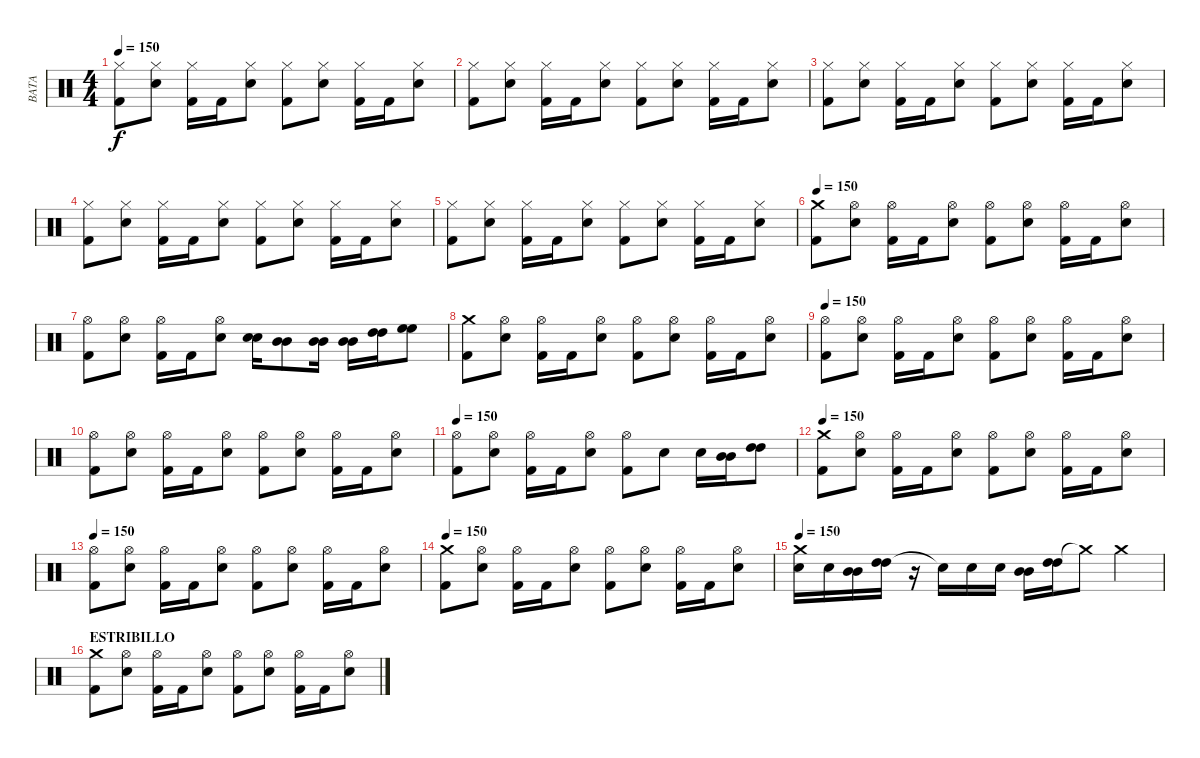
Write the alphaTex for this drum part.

\track ("BATA" "BATA") {instrument percussion}
\staff {score}
\articulation defaults
\ts (4 4)
\tempo 150
\clef neutral
\ks c
("Hi-Hat (closed)" "Kick (hit) 2").8{dy f} ("Hi-Hat (closed)" "Snare (hit) 2").8 ("Hi-Hat (closed)" "Kick (hit) 2").16 "Kick (hit) 2".16 ("Hi-Hat (closed)" "Snare (hit) 2").8 ("Hi-Hat (closed)" "Kick (hit) 2").8 ("Hi-Hat (closed)" "Snare (hit) 2").8 ("Hi-Hat (closed)" "Kick (hit) 2").16 "Kick (hit) 2".16 ("Hi-Hat (closed)" "Snare (hit) 2").8 |
("Hi-Hat (closed)" "Kick (hit) 2").8 ("Hi-Hat (closed)" "Snare (hit) 2").8 ("Hi-Hat (closed)" "Kick (hit) 2").16 "Kick (hit) 2".16 ("Hi-Hat (closed)" "Snare (hit) 2").8 ("Hi-Hat (closed)" "Kick (hit) 2").8 ("Hi-Hat (closed)" "Snare (hit) 2").8 ("Hi-Hat (closed)" "Kick (hit) 2").16 "Kick (hit) 2".16 ("Hi-Hat (closed)" "Snare (hit) 2").8 |
("Hi-Hat (closed)" "Kick (hit) 2").8 ("Hi-Hat (closed)" "Snare (hit) 2").8 ("Hi-Hat (closed)" "Kick (hit) 2").16 "Kick (hit) 2".16 ("Hi-Hat (closed)" "Snare (hit) 2").8 ("Hi-Hat (closed)" "Kick (hit) 2").8 ("Hi-Hat (closed)" "Snare (hit) 2").8 ("Hi-Hat (closed)" "Kick (hit) 2").16 "Kick (hit) 2".16 ("Hi-Hat (closed)" "Snare (hit) 2").8 |
("Hi-Hat (closed)" "Kick (hit) 2").8 ("Hi-Hat (closed)" "Snare (hit) 2").8 ("Hi-Hat (closed)" "Kick (hit) 2").16 "Kick (hit) 2".16 ("Hi-Hat (closed)" "Snare (hit) 2").8 ("Hi-Hat (closed)" "Kick (hit) 2").8 ("Hi-Hat (closed)" "Snare (hit) 2").8 ("Hi-Hat (closed)" "Kick (hit) 2").16 "Kick (hit) 2".16 ("Hi-Hat (closed)" "Snare (hit) 2").8 |
("Hi-Hat (closed)" "Kick (hit) 2").8 ("Hi-Hat (closed)" "Snare (hit) 2").8 ("Hi-Hat (closed)" "Kick (hit) 2").16 "Kick (hit) 2".16 ("Hi-Hat (closed)" "Snare (hit) 2").8 ("Hi-Hat (closed)" "Kick (hit) 2").8 ("Hi-Hat (closed)" "Snare (hit) 2").8 ("Hi-Hat (closed)" "Kick (hit) 2").16 "Kick (hit) 2".16 ("Hi-Hat (closed)" "Snare (hit) 2").8 |
\tempo 150
("Crash medium (hit)" "Kick (hit) 2").8 ("Hi-Hat (open)" "Snare (hit) 2").8 ("Hi-Hat (open)" "Kick (hit) 2").16 "Kick (hit) 2".16 ("Hi-Hat (open)" "Snare (hit) 2").8 ("Hi-Hat (open)" "Kick (hit) 2").8 ("Hi-Hat (open)" "Snare (hit) 2").8 ("Hi-Hat (open)" "Kick (hit) 2").16 "Kick (hit) 2".16 ("Hi-Hat (open)" "Snare (hit) 2").8 |
("Hi-Hat (open)" "Kick (hit) 2").8 ("Hi-Hat (open)" "Snare (hit) 2").8 ("Hi-Hat (open)" "Kick (hit) 2").16 "Kick (hit) 2".16 ("Hi-Hat (open)" "Snare (hit) 2").8 ("Snare (hit) 2" "Snare (hit) 2").16 ("Mid Tom (hit)" "Mid Tom (hit)").8 ("Mid Tom (hit)" "Mid Tom (hit)").16 ("Mid Tom (hit)" "Mid Tom (hit)").16 ("High Tom (hit)" "High Tom (hit)").16 ("High Floor Tom (hit)" "High Floor Tom (hit)").8 |
("Crash medium (hit)" "Kick (hit) 2").8 ("Hi-Hat (open)" "Snare (hit) 2").8 ("Hi-Hat (open)" "Kick (hit) 2").16 "Kick (hit) 2".16 ("Hi-Hat (open)" "Snare (hit) 2").8 ("Hi-Hat (open)" "Kick (hit) 2").8 ("Hi-Hat (open)" "Snare (hit) 2").8 ("Hi-Hat (open)" "Kick (hit) 2").16 "Kick (hit) 2".16 ("Hi-Hat (open)" "Snare (hit) 2").8 |
\tempo 150
("Hi-Hat (open)" "Kick (hit) 2").8 ("Hi-Hat (open)" "Snare (hit) 2").8 ("Hi-Hat (open)" "Kick (hit) 2").16 "Kick (hit) 2".16 ("Hi-Hat (open)" "Snare (hit) 2").8 ("Hi-Hat (open)" "Kick (hit) 2").8 ("Hi-Hat (open)" "Snare (hit) 2").8 ("Hi-Hat (open)" "Kick (hit) 2").16 "Kick (hit) 2".16 ("Hi-Hat (open)" "Snare (hit) 2").8 |
("Hi-Hat (open)" "Kick (hit) 2").8 ("Hi-Hat (open)" "Snare (hit) 2").8 ("Hi-Hat (open)" "Kick (hit) 2").16 "Kick (hit) 2".16 ("Hi-Hat (open)" "Snare (hit) 2").8 ("Hi-Hat (open)" "Kick (hit) 2").8 ("Hi-Hat (open)" "Snare (hit) 2").8 ("Hi-Hat (open)" "Kick (hit) 2").16 "Kick (hit) 2".16 ("Hi-Hat (open)" "Snare (hit) 2").8 |
\tempo 150
("Hi-Hat (open)" "Kick (hit) 2").8 ("Hi-Hat (open)" "Snare (hit) 2").8 ("Hi-Hat (open)" "Kick (hit) 2").16 "Kick (hit) 2".16 ("Hi-Hat (open)" "Snare (hit) 2").8 ("Hi-Hat (open)" "Kick (hit) 2").8 "Snare (hit) 2".8 "Snare (hit) 2".16 ("Mid Tom (hit)" "Mid Tom (hit)").16 ("High Tom (hit)" "High Tom (hit)").8 |
\tempo 150
("Crash medium (hit)" "Kick (hit) 2").8 ("Hi-Hat (open)" "Snare (hit) 2").8 ("Hi-Hat (open)" "Kick (hit) 2").16 "Kick (hit) 2".16 ("Hi-Hat (open)" "Snare (hit) 2").8 ("Hi-Hat (open)" "Kick (hit) 2").8 ("Hi-Hat (open)" "Snare (hit) 2").8 ("Hi-Hat (open)" "Kick (hit) 2").16 "Kick (hit) 2".16 ("Hi-Hat (open)" "Snare (hit) 2").8 |
\tempo 150
("Hi-Hat (open)" "Kick (hit) 2").8 ("Hi-Hat (open)" "Snare (hit) 2").8 ("Hi-Hat (open)" "Kick (hit) 2").16 "Kick (hit) 2".16 ("Hi-Hat (open)" "Snare (hit) 2").8 ("Hi-Hat (open)" "Kick (hit) 2").8 ("Hi-Hat (open)" "Snare (hit) 2").8 ("Hi-Hat (open)" "Kick (hit) 2").16 "Kick (hit) 2".16 ("Hi-Hat (open)" "Snare (hit) 2").8 |
\tempo 150
("Crash medium (hit)" "Kick (hit) 2").8 ("Hi-Hat (open)" "Snare (hit) 2").8 ("Hi-Hat (open)" "Kick (hit) 2").16 "Kick (hit) 2".16 ("Hi-Hat (open)" "Snare (hit) 2").8 ("Hi-Hat (open)" "Kick (hit) 2").8 ("Hi-Hat (open)" "Snare (hit) 2").8 ("Hi-Hat (open)" "Kick (hit) 2").16 "Kick (hit) 2".16 ("Hi-Hat (open)" "Snare (hit) 2").8 |
\tempo 150
("Crash medium (hit)" "Snare (hit) 2").16 "Snare (hit) 2".16 ("Mid Tom (hit)" "Mid Tom (hit)").16 ("High Tom (hit)" "High Tom (hit)").16 r.16 "Snare (hit)"{t}.16 "Snare (hit) 2".16 "Snare (hit) 2".16 ("Mid Tom (hit)" "Mid Tom (hit)").16 ("High Tom (hit)" "High Tom (hit)").16 "Crash medium (hit)"{t}.8 "Crash medium (hit)".4 |
\section ("" "ESTRIBILLO")
("Crash medium (hit)" "Kick (hit) 2").8 ("Hi-Hat (open)" "Snare (hit) 2").8 ("Hi-Hat (open)" "Kick (hit) 2").16 "Kick (hit) 2".16 ("Hi-Hat (open)" "Snare (hit) 2").8 ("Hi-Hat (open)" "Kick (hit) 2").8 ("Hi-Hat (open)" "Snare (hit) 2").8 ("Hi-Hat (open)" "Kick (hit) 2").16 "Kick (hit) 2".16 ("Hi-Hat (open)" "Snare (hit) 2").8
